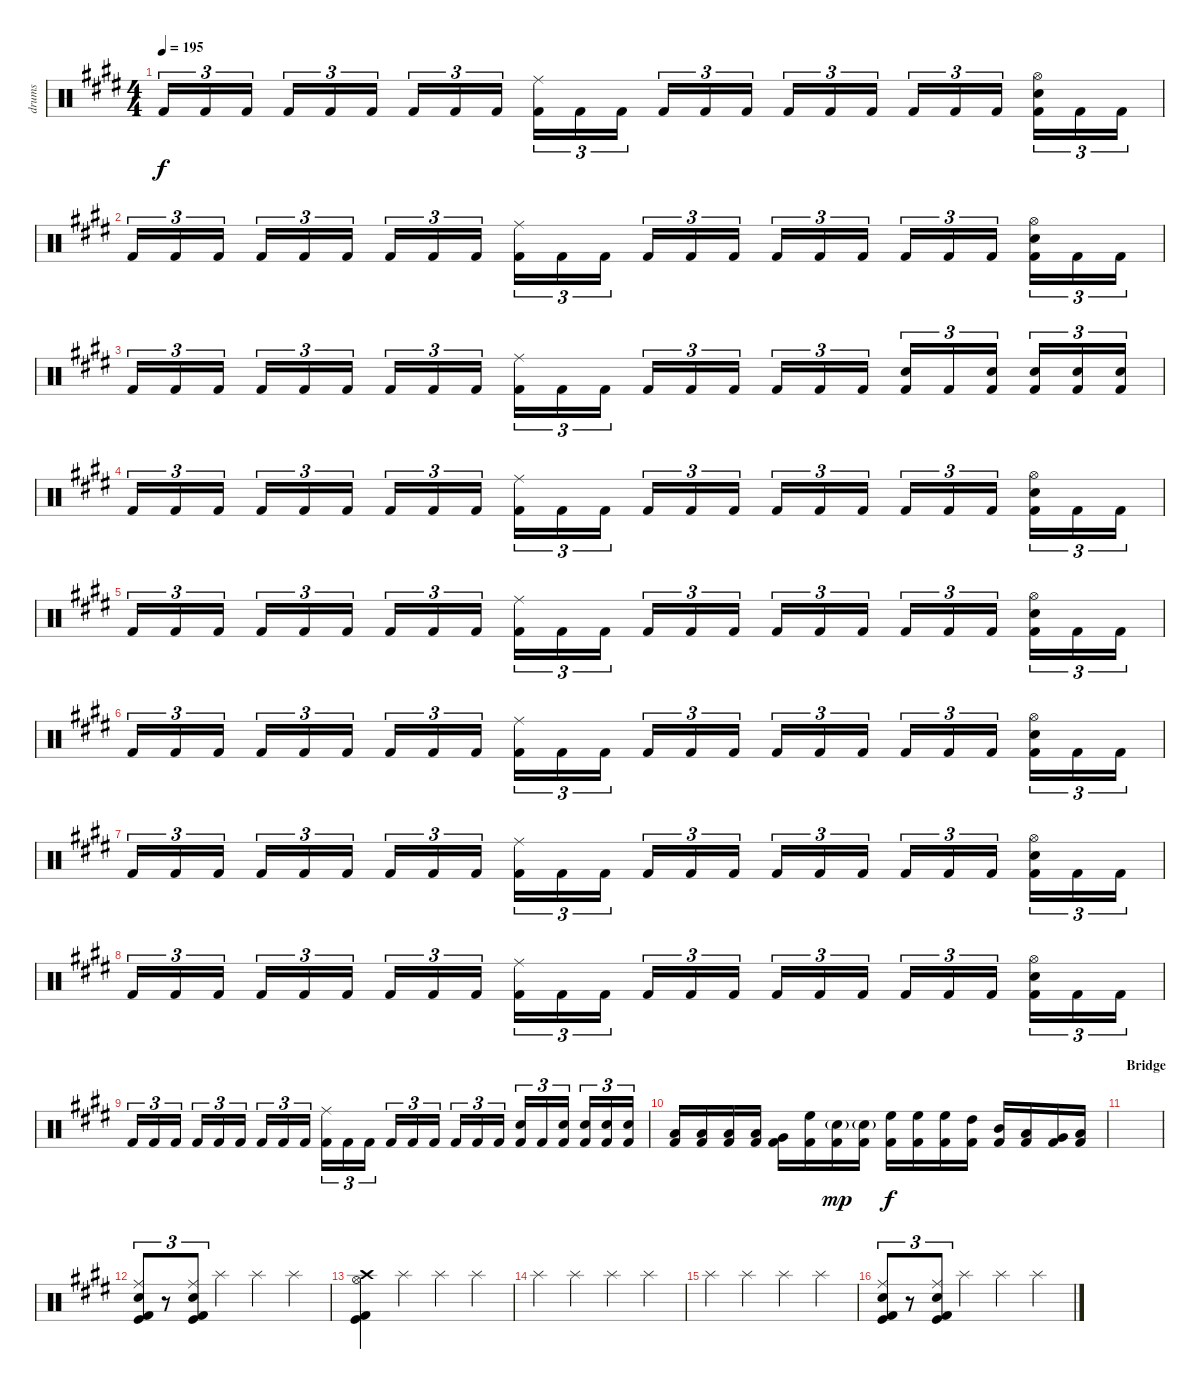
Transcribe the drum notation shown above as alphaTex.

\track ("drums" "drums") {instrument percussion}
\staff {score}
\articulation defaults
\ts (4 4)
\tempo 195
\clef neutral
\ks e "Kick (hit) 2".16{tu (3 2) dy f} "Kick (hit) 2".16{tu (3 2)} "Kick (hit) 2".16{tu (3 2)} "Kick (hit) 2".16{tu (3 2)} "Kick (hit) 2".16{tu (3 2)} "Kick (hit) 2".16{tu (3 2)} "Kick (hit) 2".16{tu (3 2)} "Kick (hit) 2".16{tu (3 2)} "Kick (hit) 2".16{tu (3 2)}
("Kick (hit) 2" "Ride (middle)").16{tu (3 2)} "Kick (hit) 2".16{tu (3 2)} "Kick (hit) 2".16{tu (3 2)} "Kick (hit) 2".16{tu (3 2)} "Kick (hit) 2".16{tu (3 2)} "Kick (hit) 2".16{tu (3 2)} "Kick (hit) 2".16{tu (3 2)} "Kick (hit) 2".16{tu (3 2)} "Kick (hit) 2".16{tu (3 2)} "Kick (hit) 2".16{tu (3 2)} "Kick (hit) 2".16{tu (3 2)} "Kick (hit) 2".16{tu (3 2)} ("Kick (hit) 2" "Electric Snare (hit)" "Hi-Hat (open)").16{tu (3 2)} "Kick (hit) 2".16{tu (3 2)} "Kick (hit) 2".16{tu (3 2)} |
"Kick (hit) 2".16{tu (3 2)} "Kick (hit) 2".16{tu (3 2)} "Kick (hit) 2".16{tu (3 2)} "Kick (hit) 2".16{tu (3 2)} "Kick (hit) 2".16{tu (3 2)} "Kick (hit) 2".16{tu (3 2)} "Kick (hit) 2".16{tu (3 2)} "Kick (hit) 2".16{tu (3 2)} "Kick (hit) 2".16{tu (3 2)} ("Kick (hit) 2" "Ride (middle)").16{tu (3 2)} "Kick (hit) 2".16{tu (3 2)} "Kick (hit) 2".16{tu (3 2)} "Kick (hit) 2".16{tu (3 2)} "Kick (hit) 2".16{tu (3 2)} "Kick (hit) 2".16{tu (3 2)} "Kick (hit) 2".16{tu (3 2)} "Kick (hit) 2".16{tu (3 2)} "Kick (hit) 2".16{tu (3 2)} "Kick (hit) 2".16{tu (3 2)} "Kick (hit) 2".16{tu (3 2)} "Kick (hit) 2".16{tu (3 2)} ("Kick (hit) 2" "Electric Snare (hit)" "Hi-Hat (open)").16{tu (3 2)} "Kick (hit) 2".16{tu (3 2)} "Kick (hit) 2".16{tu (3 2)} |
"Kick (hit) 2".16{tu (3 2)} "Kick (hit) 2".16{tu (3 2)} "Kick (hit) 2".16{tu (3 2)} "Kick (hit) 2".16{tu (3 2)} "Kick (hit) 2".16{tu (3 2)} "Kick (hit) 2".16{tu (3 2)} "Kick (hit) 2".16{tu (3 2)} "Kick (hit) 2".16{tu (3 2)} "Kick (hit) 2".16{tu (3 2)} ("Kick (hit) 2" "Ride (middle)").16{tu (3 2)} "Kick (hit) 2".16{tu (3 2)} "Kick (hit) 2".16{tu (3 2)} "Kick (hit) 2".16{tu (3 2)} "Kick (hit) 2".16{tu (3 2)} "Kick (hit) 2".16{tu (3 2)} "Kick (hit) 2".16{tu (3 2)} "Kick (hit) 2".16{tu (3 2)} "Kick (hit) 2".16{tu (3 2)} ("Kick (hit) 2" "Electric Snare (hit)").16{tu (3 2)} "Kick (hit) 2".16{tu (3 2)} ("Kick (hit) 2" "Electric Snare (hit)").16{tu (3 2)} ("Kick (hit) 2" "Electric Snare (hit)").16{tu (3 2)} ("Kick (hit) 2" "Electric Snare (hit)").16{tu (3 2)} ("Kick (hit) 2" "Electric Snare (hit)").16{tu (3 2)} |
"Kick (hit) 2".16{tu (3 2)} "Kick (hit) 2".16{tu (3 2)} "Kick (hit) 2".16{tu (3 2)} "Kick (hit) 2".16{tu (3 2)} "Kick (hit) 2".16{tu (3 2)} "Kick (hit) 2".16{tu (3 2)} "Kick (hit) 2".16{tu (3 2)} "Kick (hit) 2".16{tu (3 2)} "Kick (hit) 2".16{tu (3 2)} ("Kick (hit) 2" "Ride (middle)").16{tu (3 2)} "Kick (hit) 2".16{tu (3 2)} "Kick (hit) 2".16{tu (3 2)} "Kick (hit) 2".16{tu (3 2)} "Kick (hit) 2".16{tu (3 2)} "Kick (hit) 2".16{tu (3 2)} "Kick (hit) 2".16{tu (3 2)} "Kick (hit) 2".16{tu (3 2)} "Kick (hit) 2".16{tu (3 2)} "Kick (hit) 2".16{tu (3 2)} "Kick (hit) 2".16{tu (3 2)} "Kick (hit) 2".16{tu (3 2)} ("Kick (hit) 2" "Electric Snare (hit)" "Hi-Hat (open)").16{tu (3 2)} "Kick (hit) 2".16{tu (3 2)} "Kick (hit) 2".16{tu (3 2)} |
"Kick (hit) 2".16{tu (3 2)} "Kick (hit) 2".16{tu (3 2)} "Kick (hit) 2".16{tu (3 2)} "Kick (hit) 2".16{tu (3 2)} "Kick (hit) 2".16{tu (3 2)} "Kick (hit) 2".16{tu (3 2)} "Kick (hit) 2".16{tu (3 2)} "Kick (hit) 2".16{tu (3 2)} "Kick (hit) 2".16{tu (3 2)} ("Kick (hit) 2" "Ride (middle)").16{tu (3 2)} "Kick (hit) 2".16{tu (3 2)} "Kick (hit) 2".16{tu (3 2)} "Kick (hit) 2".16{tu (3 2)} "Kick (hit) 2".16{tu (3 2)} "Kick (hit) 2".16{tu (3 2)} "Kick (hit) 2".16{tu (3 2)} "Kick (hit) 2".16{tu (3 2)} "Kick (hit) 2".16{tu (3 2)} "Kick (hit) 2".16{tu (3 2)} "Kick (hit) 2".16{tu (3 2)} "Kick (hit) 2".16{tu (3 2)} ("Kick (hit) 2" "Electric Snare (hit)" "Hi-Hat (open)").16{tu (3 2)} "Kick (hit) 2".16{tu (3 2)} "Kick (hit) 2".16{tu (3 2)} |
"Kick (hit) 2".16{tu (3 2)} "Kick (hit) 2".16{tu (3 2)} "Kick (hit) 2".16{tu (3 2)} "Kick (hit) 2".16{tu (3 2)} "Kick (hit) 2".16{tu (3 2)} "Kick (hit) 2".16{tu (3 2)} "Kick (hit) 2".16{tu (3 2)} "Kick (hit) 2".16{tu (3 2)} "Kick (hit) 2".16{tu (3 2)} ("Kick (hit) 2" "Ride (middle)").16{tu (3 2)} "Kick (hit) 2".16{tu (3 2)} "Kick (hit) 2".16{tu (3 2)} "Kick (hit) 2".16{tu (3 2)} "Kick (hit) 2".16{tu (3 2)} "Kick (hit) 2".16{tu (3 2)} "Kick (hit) 2".16{tu (3 2)} "Kick (hit) 2".16{tu (3 2)} "Kick (hit) 2".16{tu (3 2)} "Kick (hit) 2".16{tu (3 2)} "Kick (hit) 2".16{tu (3 2)} "Kick (hit) 2".16{tu (3 2)} ("Kick (hit) 2" "Electric Snare (hit)" "Hi-Hat (open)").16{tu (3 2)} "Kick (hit) 2".16{tu (3 2)} "Kick (hit) 2".16{tu (3 2)} |
"Kick (hit) 2".16{tu (3 2)} "Kick (hit) 2".16{tu (3 2)} "Kick (hit) 2".16{tu (3 2)} "Kick (hit) 2".16{tu (3 2)} "Kick (hit) 2".16{tu (3 2)} "Kick (hit) 2".16{tu (3 2)} "Kick (hit) 2".16{tu (3 2)} "Kick (hit) 2".16{tu (3 2)} "Kick (hit) 2".16{tu (3 2)} ("Kick (hit) 2" "Ride (middle)").16{tu (3 2)} "Kick (hit) 2".16{tu (3 2)} "Kick (hit) 2".16{tu (3 2)} "Kick (hit) 2".16{tu (3 2)} "Kick (hit) 2".16{tu (3 2)} "Kick (hit) 2".16{tu (3 2)} "Kick (hit) 2".16{tu (3 2)} "Kick (hit) 2".16{tu (3 2)} "Kick (hit) 2".16{tu (3 2)} "Kick (hit) 2".16{tu (3 2)} "Kick (hit) 2".16{tu (3 2)} "Kick (hit) 2".16{tu (3 2)} ("Kick (hit) 2" "Electric Snare (hit)" "Hi-Hat (open)").16{tu (3 2)} "Kick (hit) 2".16{tu (3 2)} "Kick (hit) 2".16{tu (3 2)} |
"Kick (hit) 2".16{tu (3 2)} "Kick (hit) 2".16{tu (3 2)} "Kick (hit) 2".16{tu (3 2)} "Kick (hit) 2".16{tu (3 2)} "Kick (hit) 2".16{tu (3 2)} "Kick (hit) 2".16{tu (3 2)} "Kick (hit) 2".16{tu (3 2)} "Kick (hit) 2".16{tu (3 2)} "Kick (hit) 2".16{tu (3 2)} ("Kick (hit) 2" "Ride (middle)").16{tu (3 2)} "Kick (hit) 2".16{tu (3 2)} "Kick (hit) 2".16{tu (3 2)} "Kick (hit) 2".16{tu (3 2)} "Kick (hit) 2".16{tu (3 2)} "Kick (hit) 2".16{tu (3 2)} "Kick (hit) 2".16{tu (3 2)} "Kick (hit) 2".16{tu (3 2)} "Kick (hit) 2".16{tu (3 2)} "Kick (hit) 2".16{tu (3 2)} "Kick (hit) 2".16{tu (3 2)} "Kick (hit) 2".16{tu (3 2)} ("Kick (hit) 2" "Electric Snare (hit)" "Hi-Hat (open)").16{tu (3 2)} "Kick (hit) 2".16{tu (3 2)} "Kick (hit) 2".16{tu (3 2)} |
"Kick (hit) 2".16{tu (3 2)} "Kick (hit) 2".16{tu (3 2)} "Kick (hit) 2".16{tu (3 2)} "Kick (hit) 2".16{tu (3 2)} "Kick (hit) 2".16{tu (3 2)} "Kick (hit) 2".16{tu (3 2)} "Kick (hit) 2".16{tu (3 2)} "Kick (hit) 2".16{tu (3 2)} "Kick (hit) 2".16{tu (3 2)} ("Kick (hit) 2" "Ride (middle)").16{tu (3 2)} "Kick (hit) 2".16{tu (3 2)} "Kick (hit) 2".16{tu (3 2)} "Kick (hit) 2".16{tu (3 2)} "Kick (hit) 2".16{tu (3 2)} "Kick (hit) 2".16{tu (3 2)} "Kick (hit) 2".16{tu (3 2)} "Kick (hit) 2".16{tu (3 2)} "Kick (hit) 2".16{tu (3 2)} ("Kick (hit) 2" "Electric Snare (hit)").16{tu (3 2)} "Kick (hit) 2".16{tu (3 2)} ("Kick (hit) 2" "Electric Snare (hit)").16{tu (3 2)} ("Kick (hit) 2" "Electric Snare (hit)").16{tu (3 2)} ("Kick (hit) 2" "Electric Snare (hit)").16{tu (3 2)} ("Kick (hit) 2" "Electric Snare (hit)").16{tu (3 2)} |
("Low Floor Tom (hit)" "Kick (hit) 2").16 ("Low Tom (hit)" "Kick (hit) 2").16 ("Low Tom (hit)" "Kick (hit) 2").16 ("Low Tom (hit)" "Kick (hit) 2").16 ("Very Low Tom (hit)" "Kick (hit) 2").16 ("High Floor Tom (hit)" "Kick (hit) 2").16 ("Snare (hit) 2"{g} "Kick (hit) 2").16{dy mp} ("Snare (hit) 2"{g} "Kick (hit) 2").16 ("High Floor Tom (hit)" "Kick (hit) 2").16{dy f} ("High Floor Tom (hit)" "Kick (hit) 2").16 ("High Floor Tom (hit)" "Kick (hit) 2").16 ("High Tom (hit)" "Kick (hit) 2").16 ("Mid Tom (hit)" "Kick (hit) 2").16 ("Low Tom (hit)" "Kick (hit) 2").16 ("Very Low Tom (hit)" "Kick (hit) 2").16 ("Low Floor Tom (hit)" "Kick (hit) 2").16 |
\section ("" "Bridge")
|
("Ride (middle)" "Electric Snare (hit)" "Kick (hit)" "Kick (hit) 2").8{tu (3 2)} r.8{tu (3 2)} ("Ride (middle)" "Electric Snare (hit)" "Kick (hit)" "Kick (hit) 2").8{tu (3 2)} "Splash (hit)".4 "Splash (hit)".4 "Splash (hit)".4 |
("Crash high (hit)" "Hi-Hat (open)" "Kick (hit)" "Kick (hit) 2").4 "Splash (hit)".4 "Splash (hit)".4 "Splash (hit)".4 |
"Splash (hit)".4 "Splash (hit)".4 "Splash (hit)".4 "Splash (hit)".4 |
"Splash (hit)".4 "Splash (hit)".4 "Splash (hit)".4 "Splash (hit)".4 |
("Ride (middle)" "Electric Snare (hit)" "Kick (hit)" "Kick (hit) 2").8{tu (3 2)} r.8{tu (3 2)} ("Ride (middle)" "Electric Snare (hit)" "Kick (hit)" "Kick (hit) 2").8{tu (3 2)} "Splash (hit)".4 "Splash (hit)".4 "Splash (hit)".4
